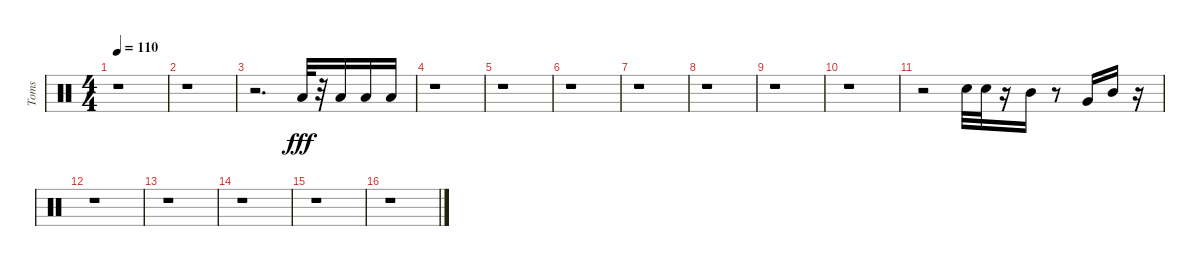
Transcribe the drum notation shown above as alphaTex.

\track ("Toms" "Toms") {instrument percussion}
\staff {score}
\articulation defaults
\ts (4 4)
\tempo 110
\clef neutral
\ks c
r.1{dy fff} |
r.1 |
r.2{d} "Low Tom (hit)".32 r.32 "Low Tom (hit)".16 "Low Floor Tom (hit)".16 "Low Floor Tom (hit)".16 |
r.1 |
r.1 |
r.1 |
r.1 |
r.1 |
r.1 |
r.1 |
r.2 "Snare (hit) 2".32 "Snare (hit) 2".32 r.16 "Mid Tom (hit)".16 r.8 "Very Low Tom (hit)".16 "Mid Tom (hit)".16 r.16 |
r.1 |
r.1 |
r.1 |
r.1 |
r.1
